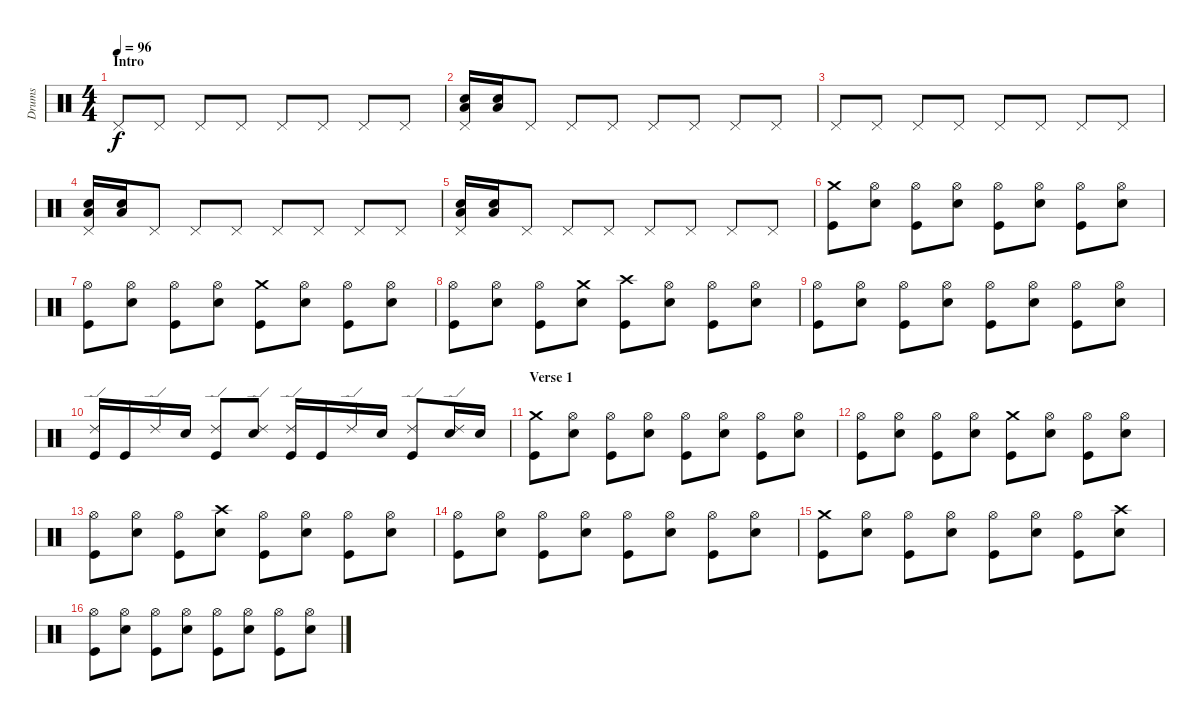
\track ("Drums" "Drums") {instrument percussion}
\staff {score}
\articulation defaults
\ts (4 4)
\section ("" "Intro")
\tempo 96
\clef neutral
\ks c "Pedal Hi-Hat (hit)".8{dy f volume 0} "Pedal Hi-Hat (hit)".8 "Pedal Hi-Hat (hit)".8 "Pedal Hi-Hat (hit)".8 "Pedal Hi-Hat (hit)".8{volume 16} "Pedal Hi-Hat (hit)".8 "Pedal Hi-Hat (hit)".8 "Pedal Hi-Hat (hit)".8
|
("Pedal Hi-Hat (hit)" "Low Floor Tom (hit)" "Snare (hit) 2").16 ("Low Floor Tom (hit)" "Snare (hit) 2").16 "Pedal Hi-Hat (hit)".8 "Pedal Hi-Hat (hit)".8 "Pedal Hi-Hat (hit)".8 "Pedal Hi-Hat (hit)".8 "Pedal Hi-Hat (hit)".8 "Pedal Hi-Hat (hit)".8 "Pedal Hi-Hat (hit)".8 |
"Pedal Hi-Hat (hit)".8 "Pedal Hi-Hat (hit)".8 "Pedal Hi-Hat (hit)".8 "Pedal Hi-Hat (hit)".8 "Pedal Hi-Hat (hit)".8 "Pedal Hi-Hat (hit)".8 "Pedal Hi-Hat (hit)".8 "Pedal Hi-Hat (hit)".8 |
("Pedal Hi-Hat (hit)" "Low Floor Tom (hit)" "Snare (hit) 2").16 ("Low Floor Tom (hit)" "Snare (hit) 2").16 "Pedal Hi-Hat (hit)".8 "Pedal Hi-Hat (hit)".8 "Pedal Hi-Hat (hit)".8 "Pedal Hi-Hat (hit)".8 "Pedal Hi-Hat (hit)".8 "Pedal Hi-Hat (hit)".8 "Pedal Hi-Hat (hit)".8 |
("Pedal Hi-Hat (hit)" "Low Floor Tom (hit)" "Snare (hit) 2").16 ("Low Floor Tom (hit)" "Snare (hit) 2").16 "Pedal Hi-Hat (hit)".8 "Pedal Hi-Hat (hit)".8 "Pedal Hi-Hat (hit)".8 "Pedal Hi-Hat (hit)".8 "Pedal Hi-Hat (hit)".8 "Pedal Hi-Hat (hit)".8 "Pedal Hi-Hat (hit)".8 |
("Crash medium (hit)" "Kick (hit)").8 ("Hi-Hat (open)" "Snare (hit) 2").8 ("Hi-Hat (open)" "Kick (hit)").8 ("Hi-Hat (open)" "Snare (hit) 2").8 ("Hi-Hat (open)" "Kick (hit)").8 ("Hi-Hat (open)" "Snare (hit) 2").8 ("Hi-Hat (open)" "Kick (hit)").8 ("Hi-Hat (open)" "Snare (hit) 2").8 |
("Hi-Hat (open)" "Kick (hit)").8 ("Hi-Hat (open)" "Snare (hit) 2").8 ("Hi-Hat (open)" "Kick (hit)").8 ("Hi-Hat (open)" "Snare (hit) 2").8 ("Crash medium (hit)" "Kick (hit)").8 ("Hi-Hat (open)" "Snare (hit) 2").8 ("Hi-Hat (open)" "Kick (hit)").8 ("Hi-Hat (open)" "Snare (hit) 2").8 |
("Hi-Hat (open)" "Kick (hit)").8 ("Hi-Hat (open)" "Snare (hit) 2").8 ("Hi-Hat (open)" "Kick (hit)").8 ("Crash medium (hit)" "Snare (hit) 2").8 ("Crash high (hit)" "Kick (hit)").8 ("Hi-Hat (open)" "Snare (hit) 2").8 ("Hi-Hat (open)" "Kick (hit)").8 ("Hi-Hat (open)" "Snare (hit) 2").8 |
("Hi-Hat (open)" "Kick (hit)").8 ("Hi-Hat (open)" "Snare (hit) 2").8 ("Hi-Hat (open)" "Kick (hit)").8 ("Hi-Hat (open)" "Snare (hit) 2").8 ("Hi-Hat (open)" "Kick (hit)").8 ("Hi-Hat (open)" "Snare (hit) 2").8 ("Hi-Hat (open)" "Kick (hit)").8 ("Hi-Hat (open)" "Snare (hit) 2").8 |
("Ride (edge) 2" "Kick (hit)").16 "Kick (hit)".16 "Ride (edge) 2".16 "Snare (hit) 2".16 ("Ride (edge) 2" "Kick (hit)").8 ("Ride (edge) 2" "Snare (hit) 2").8 ("Ride (edge) 2" "Kick (hit)").16 "Kick (hit)".16 "Ride (edge) 2".16 "Snare (hit) 2".16 ("Ride (edge) 2" "Kick (hit)").8 ("Ride (edge) 2" "Snare (hit) 2").16 "Snare (hit) 2".16 |
\section ("" "Verse 1")
("Crash medium (hit)" "Kick (hit)").8 ("Hi-Hat (open)" "Snare (hit) 2").8 ("Hi-Hat (open)" "Kick (hit)").8 ("Hi-Hat (open)" "Snare (hit) 2").8 ("Hi-Hat (open)" "Kick (hit)").8 ("Hi-Hat (open)" "Snare (hit) 2").8 ("Hi-Hat (open)" "Kick (hit)").8 ("Hi-Hat (open)" "Snare (hit) 2").8 |
("Hi-Hat (open)" "Kick (hit)").8 ("Hi-Hat (open)" "Snare (hit) 2").8 ("Hi-Hat (open)" "Kick (hit)").8 ("Hi-Hat (open)" "Snare (hit) 2").8 ("Crash medium (hit)" "Kick (hit)").8 ("Hi-Hat (open)" "Snare (hit) 2").8 ("Hi-Hat (open)" "Kick (hit)").8 ("Hi-Hat (open)" "Snare (hit) 2").8 |
("Hi-Hat (open)" "Kick (hit)").8 ("Hi-Hat (open)" "Snare (hit) 2").8 ("Hi-Hat (open)" "Kick (hit)").8 ("Crash high (hit)" "Snare (hit) 2").8 ("Hi-Hat (open)" "Kick (hit)").8 ("Hi-Hat (open)" "Snare (hit) 2").8 ("Hi-Hat (open)" "Kick (hit)").8 ("Hi-Hat (open)" "Snare (hit) 2").8 |
("Hi-Hat (open)" "Kick (hit)").8 ("Hi-Hat (open)" "Snare (hit) 2").8 ("Hi-Hat (open)" "Kick (hit)").8 ("Hi-Hat (open)" "Snare (hit) 2").8 ("Hi-Hat (open)" "Kick (hit)").8 ("Hi-Hat (open)" "Snare (hit) 2").8 ("Hi-Hat (open)" "Kick (hit)").8 ("Hi-Hat (open)" "Snare (hit) 2").8 |
("Crash medium (hit)" "Kick (hit)").8 ("Hi-Hat (open)" "Snare (hit) 2").8 ("Hi-Hat (open)" "Kick (hit)").8 ("Hi-Hat (open)" "Snare (hit) 2").8 ("Hi-Hat (open)" "Kick (hit)").8 ("Hi-Hat (open)" "Snare (hit) 2").8 ("Hi-Hat (open)" "Kick (hit)").8 ("Crash high (hit)" "Snare (hit) 2").8 |
("Hi-Hat (open)" "Kick (hit)").8 ("Hi-Hat (open)" "Snare (hit) 2").8 ("Hi-Hat (open)" "Kick (hit)").8 ("Hi-Hat (open)" "Snare (hit) 2").8 ("Hi-Hat (open)" "Kick (hit)").8 ("Hi-Hat (open)" "Snare (hit) 2").8 ("Hi-Hat (open)" "Kick (hit)").8 ("Hi-Hat (open)" "Snare (hit) 2").8
